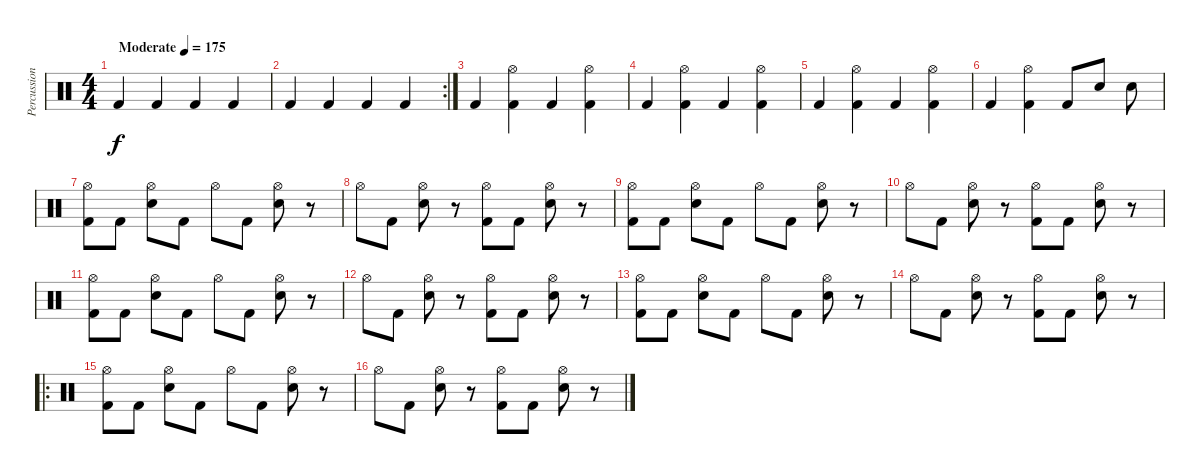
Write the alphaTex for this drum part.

\track ("Percussion" "Percussion") {instrument percussion}
\staff {score}
\articulation defaults
\ts (4 4)
\tempo (175 "Moderate")
\clef neutral
\ks c "Kick (hit) 2".4{dy f} "Kick (hit) 2".4 "Kick (hit) 2".4 "Kick (hit) 2".4
|
\rc 2 "Kick (hit) 2".4 "Kick (hit) 2".4 "Kick (hit) 2".4 "Kick (hit) 2".4
|
"Kick (hit) 2".4 ("Hi-Hat (open)" "Kick (hit) 2").4 "Kick (hit) 2".4 ("Hi-Hat (open)" "Kick (hit) 2").4 |
"Kick (hit) 2".4 ("Hi-Hat (open)" "Kick (hit) 2").4 "Kick (hit) 2".4 ("Hi-Hat (open)" "Kick (hit) 2").4 |
"Kick (hit) 2".4 ("Hi-Hat (open)" "Kick (hit) 2").4 "Kick (hit) 2".4 ("Hi-Hat (open)" "Kick (hit) 2").4 |
"Kick (hit) 2".4 ("Hi-Hat (open)" "Kick (hit) 2").4 "Kick (hit) 2".8 "Hand Clap (hit)".8 "Hand Clap (hit)".8 |
("Hi-Hat (open)" "Kick (hit) 2").8 "Kick (hit) 2".8 ("Hi-Hat (open)" "Snare (hit) 2").8 "Kick (hit) 2".8 "Hi-Hat (open)".8 "Kick (hit) 2".8 ("Hi-Hat (open)" "Snare (hit) 2").8 r.8 |
"Hi-Hat (open)".8 "Kick (hit) 2".8 ("Hi-Hat (open)" "Snare (hit) 2").8 r.8 ("Hi-Hat (open)" "Kick (hit) 2").8 "Kick (hit) 2".8 ("Hi-Hat (open)" "Snare (hit) 2").8 r.8 |
("Hi-Hat (open)" "Kick (hit) 2").8 "Kick (hit) 2".8 ("Hi-Hat (open)" "Snare (hit) 2").8 "Kick (hit) 2".8 "Hi-Hat (open)".8 "Kick (hit) 2".8 ("Hi-Hat (open)" "Snare (hit) 2").8 r.8 |
"Hi-Hat (open)".8 "Kick (hit) 2".8 ("Hi-Hat (open)" "Snare (hit) 2").8 r.8 ("Hi-Hat (open)" "Kick (hit) 2").8 "Kick (hit) 2".8 ("Hi-Hat (open)" "Snare (hit) 2").8 r.8 |
("Hi-Hat (open)" "Kick (hit) 2").8 "Kick (hit) 2".8 ("Hi-Hat (open)" "Snare (hit) 2").8 "Kick (hit) 2".8 "Hi-Hat (open)".8 "Kick (hit) 2".8 ("Hi-Hat (open)" "Snare (hit) 2").8 r.8 |
"Hi-Hat (open)".8 "Kick (hit) 2".8 ("Hi-Hat (open)" "Snare (hit) 2").8 r.8 ("Hi-Hat (open)" "Kick (hit) 2").8 "Kick (hit) 2".8 ("Hi-Hat (open)" "Snare (hit) 2").8 r.8 |
("Hi-Hat (open)" "Kick (hit) 2").8 "Kick (hit) 2".8 ("Hi-Hat (open)" "Snare (hit) 2").8 "Kick (hit) 2".8 "Hi-Hat (open)".8 "Kick (hit) 2".8 ("Hi-Hat (open)" "Snare (hit) 2").8 r.8 |
"Hi-Hat (open)".8 "Kick (hit) 2".8 ("Hi-Hat (open)" "Snare (hit) 2").8 r.8 ("Hi-Hat (open)" "Kick (hit) 2").8 "Kick (hit) 2".8 ("Hi-Hat (open)" "Snare (hit) 2").8 r.8 |
\ro
("Hi-Hat (open)" "Kick (hit) 2").8 "Kick (hit) 2".8 ("Hi-Hat (open)" "Snare (hit) 2").8 "Kick (hit) 2".8 "Hi-Hat (open)".8 "Kick (hit) 2".8 ("Hi-Hat (open)" "Snare (hit) 2").8 r.8 |
"Hi-Hat (open)".8 "Kick (hit) 2".8 ("Hi-Hat (open)" "Snare (hit) 2").8 r.8 ("Hi-Hat (open)" "Kick (hit) 2").8 "Kick (hit) 2".8 ("Hi-Hat (open)" "Snare (hit) 2").8 r.8
